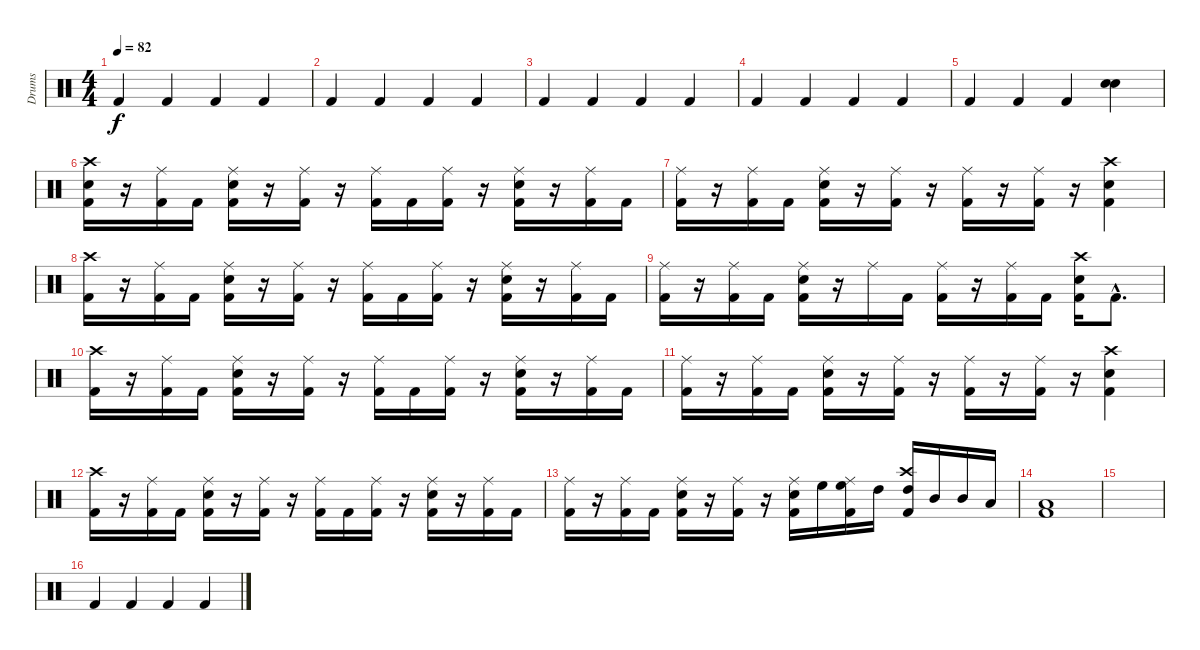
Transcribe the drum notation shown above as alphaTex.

\track ("Drums" "Drums") {instrument percussion}
\staff {score}
\articulation defaults
\ts (4 4)
\tempo 82
\clef neutral
\ks c "Kick (hit) 2".4{dy f} "Kick (hit) 2".4 "Kick (hit) 2".4 "Kick (hit) 2".4
|
"Kick (hit) 2".4 "Kick (hit) 2".4 "Kick (hit) 2".4 "Kick (hit) 2".4 |
"Kick (hit) 2".4 "Kick (hit) 2".4 "Kick (hit) 2".4 "Kick (hit) 2".4 |
"Kick (hit) 2".4 "Kick (hit) 2".4 "Kick (hit) 2".4 "Kick (hit) 2".4 |
"Kick (hit) 2".4 "Kick (hit) 2".4 "Kick (hit) 2".4 ("Snare (hit) 2" "Electric Snare (hit)").4 |
("Crash high (hit)" "Electric Snare (hit)" "Kick (hit) 2").16 r.16 ("Ride (middle)" "Kick (hit) 2").16 "Kick (hit) 2".16 ("Ride (middle)" "Electric Snare (hit)" "Kick (hit) 2").16 r.16 ("Ride (middle)" "Kick (hit) 2").16 r.16 ("Ride (middle)" "Kick (hit) 2").16 "Kick (hit) 2".16 ("Ride (middle)" "Kick (hit) 2").16 r.16 ("Ride (middle)" "Electric Snare (hit)" "Kick (hit) 2").16 r.16 ("Ride (middle)" "Kick (hit) 2").16 "Kick (hit) 2".16 |
("Ride (middle)" "Kick (hit) 2").16 r.16 ("Ride (middle)" "Kick (hit) 2").16 "Kick (hit) 2".16 ("Ride (middle)" "Electric Snare (hit)" "Kick (hit) 2").16 r.16 ("Ride (middle)" "Kick (hit) 2").16 r.16 ("Ride (middle)" "Kick (hit) 2").16 r.16 ("Ride (middle)" "Kick (hit) 2").16 r.16 ("Crash high (hit)" "Electric Snare (hit)" "Kick (hit) 2").4 |
("Crash high (hit)" "Kick (hit) 2").16 r.16 ("Ride (middle)" "Kick (hit) 2").16 "Kick (hit) 2".16 ("Ride (middle)" "Electric Snare (hit)" "Kick (hit) 2").16 r.16 ("Ride (middle)" "Kick (hit) 2").16 r.16 ("Ride (middle)" "Kick (hit) 2").16 "Kick (hit) 2".16 ("Ride (middle)" "Kick (hit) 2").16 r.16 ("Ride (middle)" "Electric Snare (hit)" "Kick (hit) 2").16 r.16 ("Ride (middle)" "Kick (hit) 2").16 "Kick (hit) 2".16 |
("Ride (middle)" "Kick (hit) 2").16 r.16 ("Ride (middle)" "Kick (hit) 2").16 "Kick (hit) 2".16 ("Ride (middle)" "Electric Snare (hit)" "Kick (hit) 2").16 r.16 "Ride (middle)".16 "Kick (hit) 2".16 ("Ride (middle)" "Kick (hit) 2").16 r.16 ("Ride (middle)" "Kick (hit) 2").16 "Kick (hit) 2".16 ("Crash high (hit)" "Electric Snare (hit)" "Kick (hit) 2").16 "Kick (hit) 2"{hac}.8{d} |
("Crash high (hit)" "Kick (hit) 2").16 r.16 ("Ride (middle)" "Kick (hit) 2").16 "Kick (hit) 2".16 ("Ride (middle)" "Electric Snare (hit)" "Kick (hit) 2").16 r.16 ("Ride (middle)" "Kick (hit) 2").16 r.16 ("Ride (middle)" "Kick (hit) 2").16 "Kick (hit) 2".16 ("Ride (middle)" "Kick (hit) 2").16 r.16 ("Ride (middle)" "Electric Snare (hit)" "Kick (hit) 2").16 r.16 ("Ride (middle)" "Kick (hit) 2").16 "Kick (hit) 2".16 |
("Ride (middle)" "Kick (hit) 2").16 r.16 ("Ride (middle)" "Kick (hit) 2").16 "Kick (hit) 2".16 ("Ride (middle)" "Electric Snare (hit)" "Kick (hit) 2").16 r.16 ("Ride (middle)" "Kick (hit) 2").16 r.16 ("Ride (middle)" "Kick (hit) 2").16 r.16 ("Ride (middle)" "Kick (hit) 2").16 r.16 ("Crash high (hit)" "Electric Snare (hit)" "Kick (hit) 2").4 |
("Crash high (hit)" "Kick (hit) 2").16 r.16 ("Ride (middle)" "Kick (hit) 2").16 "Kick (hit) 2".16 ("Ride (middle)" "Electric Snare (hit)" "Kick (hit) 2").16 r.16 ("Ride (middle)" "Kick (hit) 2").16 r.16 ("Ride (middle)" "Kick (hit) 2").16 "Kick (hit) 2".16 ("Ride (middle)" "Kick (hit) 2").16 r.16 ("Ride (middle)" "Electric Snare (hit)" "Kick (hit) 2").16 r.16 ("Ride (middle)" "Kick (hit) 2").16 "Kick (hit) 2".16 |
("Ride (middle)" "Kick (hit) 2").16 r.16 ("Ride (middle)" "Kick (hit) 2").16 "Kick (hit) 2".16 ("Ride (middle)" "Electric Snare (hit)" "Kick (hit) 2").16 r.16 ("Ride (middle)" "Kick (hit) 2").16 r.16 ("Ride (middle)" "Electric Snare (hit)" "Kick (hit) 2").16 "High Floor Tom (hit)".16 ("Ride (middle)" "High Floor Tom (hit)" "Kick (hit) 2").16 "High Tom (hit)".16 ("Crash high (hit)" "High Tom (hit)" "Kick (hit) 2").16 "Mid Tom (hit)".16 "Mid Tom (hit)".16 "Low Tom (hit)".16 |
("Low Floor Tom (hit)" "Kick (hit) 2").1 |
|
"Kick (hit) 2".4 "Kick (hit) 2".4 "Kick (hit) 2".4 "Kick (hit) 2".4
